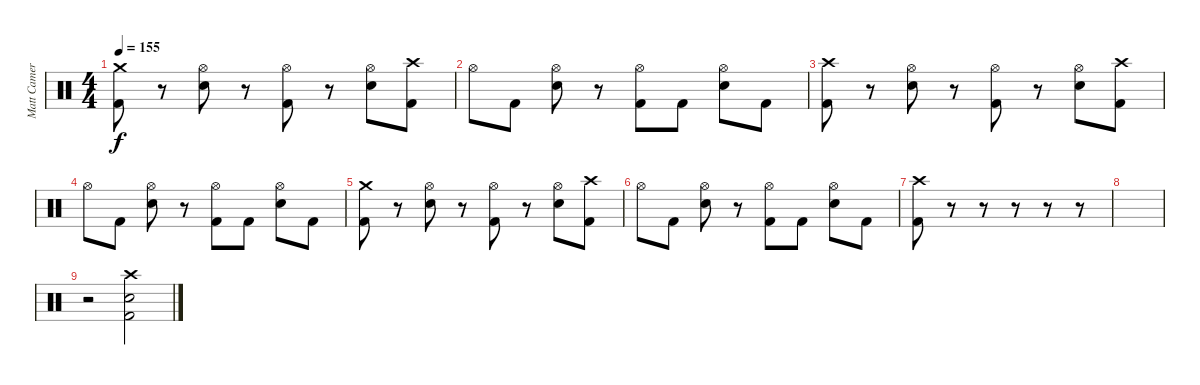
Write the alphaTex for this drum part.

\track ("Matt Cameron" "Matt Camer") {instrument percussion}
\staff {score}
\articulation defaults
\ts (4 4)
\tempo 155
\clef neutral
\ks c
("Crash medium (hit)" "Kick (hit) 2").8{dy f} r.8 ("Hi-Hat (open)" "Snare (hit) 2").8 r.8 ("Hi-Hat (open)" "Kick (hit) 2").8 r.8 ("Hi-Hat (open)" "Snare (hit) 2").8 ("Crash high (hit)" "Kick (hit) 2").8 |
"Hi-Hat (open)".8 "Kick (hit) 2".8 ("Hi-Hat (open)" "Snare (hit) 2").8 r.8 ("Hi-Hat (open)" "Kick (hit) 2").8 "Kick (hit) 2".8 ("Hi-Hat (open)" "Snare (hit) 2").8 "Kick (hit) 2".8 |
("Crash high (hit)" "Kick (hit) 2").8 r.8 ("Hi-Hat (open)" "Snare (hit) 2").8 r.8 ("Hi-Hat (open)" "Kick (hit) 2").8 r.8 ("Hi-Hat (open)" "Snare (hit) 2").8 ("Crash high (hit)" "Kick (hit) 2").8 |
"Hi-Hat (open)".8 "Kick (hit) 2".8 ("Hi-Hat (open)" "Snare (hit) 2").8 r.8 ("Hi-Hat (open)" "Kick (hit) 2").8 "Kick (hit) 2".8 ("Hi-Hat (open)" "Snare (hit) 2").8 "Kick (hit) 2".8 |
("Crash medium (hit)" "Kick (hit) 2").8 r.8 ("Hi-Hat (open)" "Snare (hit) 2").8 r.8 ("Hi-Hat (open)" "Kick (hit) 2").8 r.8 ("Hi-Hat (open)" "Snare (hit) 2").8 ("Crash high (hit)" "Kick (hit) 2").8 |
"Hi-Hat (open)".8 "Kick (hit) 2".8 ("Hi-Hat (open)" "Snare (hit) 2").8 r.8 ("Hi-Hat (open)" "Kick (hit) 2").8 "Kick (hit) 2".8 ("Hi-Hat (open)" "Snare (hit) 2").8 "Kick (hit) 2".8 |
("Crash high (hit)" "Kick (hit) 2").8 r.8 r.8 r.8 r.8 r.8 |
|
r.2 ("Kick (hit) 2" "Snare (hit) 2" "Crash high (hit)").2
